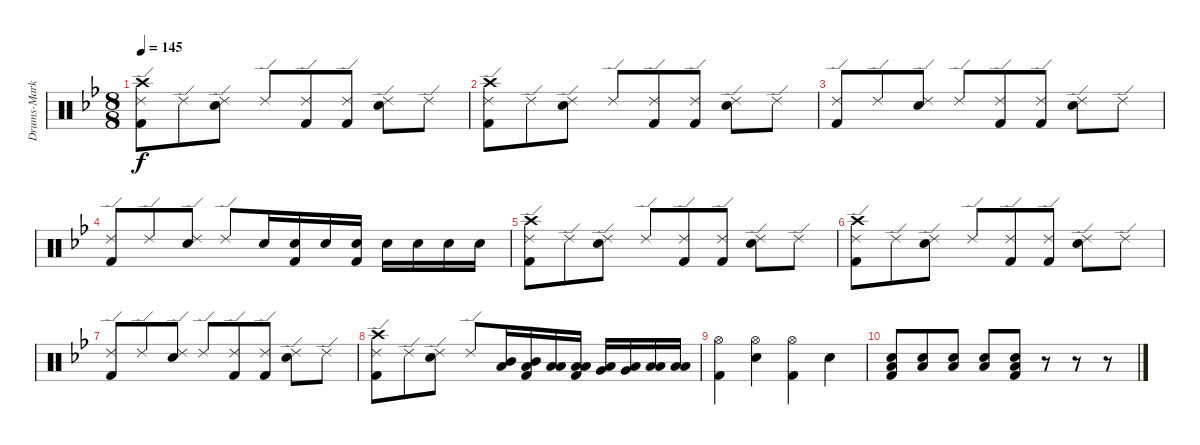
\track ("Drums-Marky" "Drums-Mark") {instrument percussion}
\staff {score}
\articulation defaults
\ts (8 8)
\tempo 145
\clef neutral
\ks bb
("Ride (edge) 2" "Kick (hit) 2" "Crash high (hit)").8{dy f} "Ride (edge) 2".8 ("Ride (edge) 2" "Snare (hit) 2").8 "Ride (edge) 2".8 ("Ride (edge) 2" "Kick (hit) 2").8 ("Ride (edge) 2" "Kick (hit) 2").8 ("Ride (edge) 2" "Snare (hit) 2").8 "Ride (edge) 2".8 |
("Ride (edge) 2" "Kick (hit) 2" "Crash high (hit)").8 "Ride (edge) 2".8 ("Ride (edge) 2" "Snare (hit) 2").8 "Ride (edge) 2".8 ("Ride (edge) 2" "Kick (hit) 2").8 ("Ride (edge) 2" "Kick (hit) 2").8 ("Ride (edge) 2" "Snare (hit) 2").8 "Ride (edge) 2".8 |
("Ride (edge) 2" "Kick (hit) 2").8 "Ride (edge) 2".8 ("Ride (edge) 2" "Snare (hit) 2").8 "Ride (edge) 2".8 ("Ride (edge) 2" "Kick (hit) 2").8 ("Ride (edge) 2" "Kick (hit) 2").8 ("Ride (edge) 2" "Snare (hit) 2").8 "Ride (edge) 2".8 |
("Ride (edge) 2" "Kick (hit) 2").8 "Ride (edge) 2".8 ("Ride (edge) 2" "Snare (hit) 2").8 "Ride (edge) 2".8 "Snare (hit) 2".16 ("Snare (hit) 2" "Kick (hit) 2").16 "Snare (hit) 2".16 ("Snare (hit) 2" "Kick (hit) 2").16 "Snare (hit) 2".16 "Snare (hit) 2".16 "Snare (hit) 2".16 "Snare (hit) 2".16 |
("Ride (edge) 2" "Kick (hit) 2" "Crash high (hit)").8 "Ride (edge) 2".8 ("Ride (edge) 2" "Snare (hit) 2").8 "Ride (edge) 2".8 ("Ride (edge) 2" "Kick (hit) 2").8 ("Ride (edge) 2" "Kick (hit) 2").8 ("Ride (edge) 2" "Snare (hit) 2").8 "Ride (edge) 2".8 |
("Ride (edge) 2" "Kick (hit) 2" "Crash high (hit)").8 "Ride (edge) 2".8 ("Ride (edge) 2" "Snare (hit) 2").8 "Ride (edge) 2".8 ("Ride (edge) 2" "Kick (hit) 2").8 ("Ride (edge) 2" "Kick (hit) 2").8 ("Ride (edge) 2" "Snare (hit) 2").8 "Ride (edge) 2".8 |
("Ride (edge) 2" "Kick (hit) 2").8 "Ride (edge) 2".8 ("Ride (edge) 2" "Snare (hit) 2").8 "Ride (edge) 2".8 ("Ride (edge) 2" "Kick (hit) 2").8 ("Ride (edge) 2" "Kick (hit) 2").8 ("Ride (edge) 2" "Snare (hit) 2").8 "Ride (edge) 2".8 |
("Ride (edge) 2" "Kick (hit) 2" "Crash high (hit)").8 "Ride (edge) 2".8 ("Ride (edge) 2" "Snare (hit) 2").8 "Ride (edge) 2".8 ("Low Floor Tom (hit)" "Mid Tom (hit)").16 ("Low Floor Tom (hit)" "Mid Tom (hit)" "Kick (hit) 2").16 ("Low Floor Tom (hit)" "Low Tom (hit)").16 ("Low Floor Tom (hit)" "Low Tom (hit)" "Kick (hit) 2").16 ("Low Floor Tom (hit)" "Very Low Tom (hit)").16 ("Low Floor Tom (hit)" "Very Low Tom (hit)").16 ("Low Floor Tom (hit)" "Low Floor Tom (hit)").16 ("Low Floor Tom (hit)" "Low Floor Tom (hit)").16 |
("Hi-Hat (open)" "Kick (hit) 2").4 ("Hi-Hat (open)" "Snare (hit) 2").4 ("Hi-Hat (open)" "Kick (hit) 2").4 "Snare (hit) 2".4 |
("Low Floor Tom (hit)" "Snare (hit) 2" "Kick (hit) 2").8 ("Low Floor Tom (hit)" "Snare (hit) 2").8 ("Low Floor Tom (hit)" "Snare (hit) 2").8 ("Low Floor Tom (hit)" "Snare (hit) 2").8 ("Low Floor Tom (hit)" "Snare (hit) 2" "Kick (hit) 2").8 r.8 r.8 r.8
